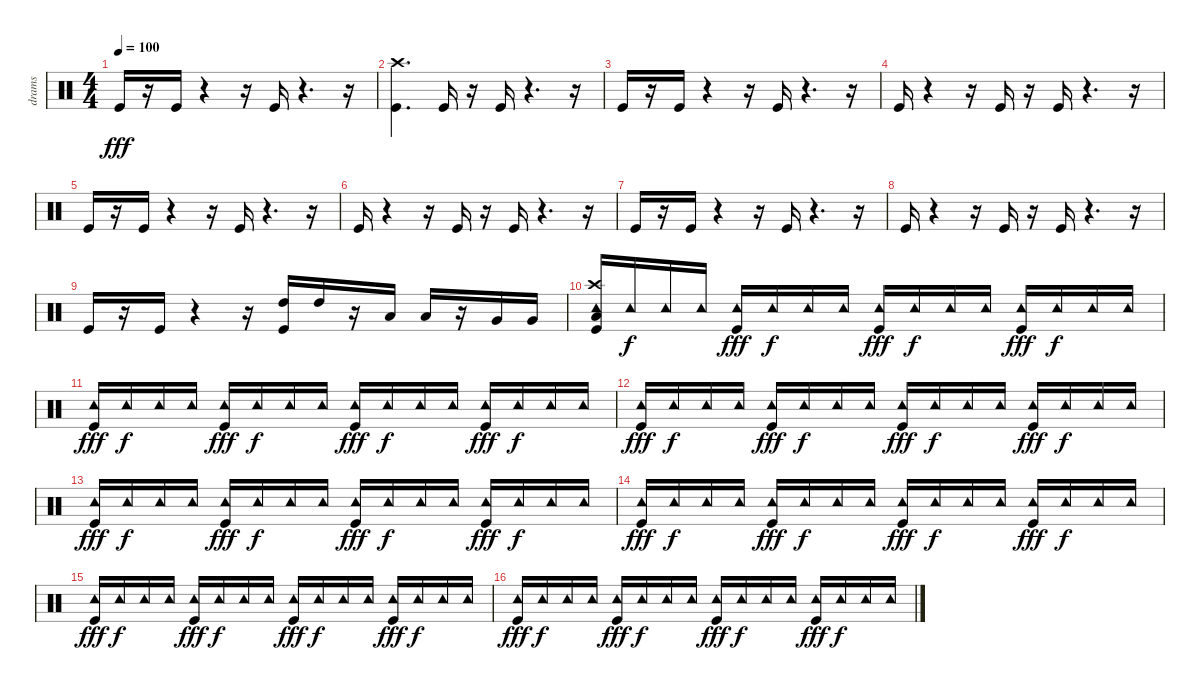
\track ("drams" "drams") {instrument percussion}
\staff {score}
\articulation defaults
\ts (4 4)
\tempo 100
\clef neutral
\ks c "Kick (hit)".16{dy fff}
r.16 "Kick (hit)".16 r.4 r.16 "Kick (hit)".16 r.4{d} r.16 |
("Kick (hit)" "Crash high (hit)").4{d} "Kick (hit)".16 r.16 "Kick (hit)".16 r.4{d} r.16 |
"Kick (hit)".16 r.16 "Kick (hit)".16 r.4 r.16 "Kick (hit)".16 r.4{d} r.16 |
"Kick (hit)".16 r.4 r.16 "Kick (hit)".16 r.16 "Kick (hit)".16 r.4{d} r.16 |
"Kick (hit)".16 r.16 "Kick (hit)".16 r.4 r.16 "Kick (hit)".16 r.4{d} r.16 |
"Kick (hit)".16 r.4 r.16 "Kick (hit)".16 r.16 "Kick (hit)".16 r.4{d} r.16 |
"Kick (hit)".16 r.16 "Kick (hit)".16 r.4 r.16 "Kick (hit)".16 r.4{d} r.16 |
"Kick (hit)".16 r.4 r.16 "Kick (hit)".16 r.16 "Kick (hit)".16 r.4{d} r.16 |
"Kick (hit)".16 r.16 "Kick (hit)".16 r.4 r.16 ("Kick (hit)" "High Tom (hit)").16 "High Tom (hit)".16 r.16 "Low Tom (hit)".16 "Low Tom (hit)".16 r.16 "Very Low Tom (hit)".16 "Very Low Tom (hit)".16 |
("Kick (hit)" "Low Floor Tom (hit)" "Crash high (hit)" "Tambourine (hit)").16 "Tambourine (hit)".16{dy f} "Tambourine (hit)".16 "Tambourine (hit)".16 ("Kick (hit)" "Tambourine (hit)").16{dy fff} "Tambourine (hit)".16{dy f} "Tambourine (hit)".16 "Tambourine (hit)".16 ("Kick (hit)" "Tambourine (hit)").16{dy fff} "Tambourine (hit)".16{dy f} "Tambourine (hit)".16 "Tambourine (hit)".16 ("Kick (hit)" "Tambourine (hit)").16{dy fff} "Tambourine (hit)".16{dy f} "Tambourine (hit)".16 "Tambourine (hit)".16 |
("Kick (hit)" "Tambourine (hit)").16{dy fff} "Tambourine (hit)".16{dy f} "Tambourine (hit)".16 "Tambourine (hit)".16 ("Kick (hit)" "Tambourine (hit)").16{dy fff} "Tambourine (hit)".16{dy f} "Tambourine (hit)".16 "Tambourine (hit)".16 ("Kick (hit)" "Tambourine (hit)").16{dy fff} "Tambourine (hit)".16{dy f} "Tambourine (hit)".16 "Tambourine (hit)".16 ("Kick (hit)" "Tambourine (hit)").16{dy fff} "Tambourine (hit)".16{dy f} "Tambourine (hit)".16 "Tambourine (hit)".16 |
("Kick (hit)" "Tambourine (hit)").16{dy fff} "Tambourine (hit)".16{dy f} "Tambourine (hit)".16 "Tambourine (hit)".16 ("Kick (hit)" "Tambourine (hit)").16{dy fff} "Tambourine (hit)".16{dy f} "Tambourine (hit)".16 "Tambourine (hit)".16 ("Kick (hit)" "Tambourine (hit)").16{dy fff} "Tambourine (hit)".16{dy f} "Tambourine (hit)".16 "Tambourine (hit)".16 ("Kick (hit)" "Tambourine (hit)").16{dy fff} "Tambourine (hit)".16{dy f} "Tambourine (hit)".16 "Tambourine (hit)".16 |
("Kick (hit)" "Tambourine (hit)").16{dy fff} "Tambourine (hit)".16{dy f} "Tambourine (hit)".16 "Tambourine (hit)".16 ("Kick (hit)" "Tambourine (hit)").16{dy fff} "Tambourine (hit)".16{dy f} "Tambourine (hit)".16 "Tambourine (hit)".16 ("Kick (hit)" "Tambourine (hit)").16{dy fff} "Tambourine (hit)".16{dy f} "Tambourine (hit)".16 "Tambourine (hit)".16 ("Kick (hit)" "Tambourine (hit)").16{dy fff} "Tambourine (hit)".16{dy f} "Tambourine (hit)".16 "Tambourine (hit)".16 |
("Kick (hit)" "Tambourine (hit)").16{dy fff} "Tambourine (hit)".16{dy f} "Tambourine (hit)".16 "Tambourine (hit)".16 ("Kick (hit)" "Tambourine (hit)").16{dy fff} "Tambourine (hit)".16{dy f} "Tambourine (hit)".16 "Tambourine (hit)".16 ("Kick (hit)" "Tambourine (hit)").16{dy fff} "Tambourine (hit)".16{dy f} "Tambourine (hit)".16 "Tambourine (hit)".16 ("Kick (hit)" "Tambourine (hit)").16{dy fff} "Tambourine (hit)".16{dy f} "Tambourine (hit)".16 "Tambourine (hit)".16 |
("Kick (hit)" "Tambourine (hit)").16{dy fff} "Tambourine (hit)".16{dy f} "Tambourine (hit)".16 "Tambourine (hit)".16 ("Kick (hit)" "Tambourine (hit)").16{dy fff} "Tambourine (hit)".16{dy f} "Tambourine (hit)".16 "Tambourine (hit)".16 ("Kick (hit)" "Tambourine (hit)").16{dy fff} "Tambourine (hit)".16{dy f} "Tambourine (hit)".16 "Tambourine (hit)".16 ("Kick (hit)" "Tambourine (hit)").16{dy fff} "Tambourine (hit)".16{dy f} "Tambourine (hit)".16 "Tambourine (hit)".16 |
("Kick (hit)" "Tambourine (hit)").16{dy fff} "Tambourine (hit)".16{dy f} "Tambourine (hit)".16 "Tambourine (hit)".16 ("Kick (hit)" "Tambourine (hit)").16{dy fff} "Tambourine (hit)".16{dy f} "Tambourine (hit)".16 "Tambourine (hit)".16 ("Kick (hit)" "Tambourine (hit)").16{dy fff} "Tambourine (hit)".16{dy f} "Tambourine (hit)".16 "Tambourine (hit)".16 ("Kick (hit)" "Tambourine (hit)").16{dy fff} "Tambourine (hit)".16{dy f} "Tambourine (hit)".16 "Tambourine (hit)".16
